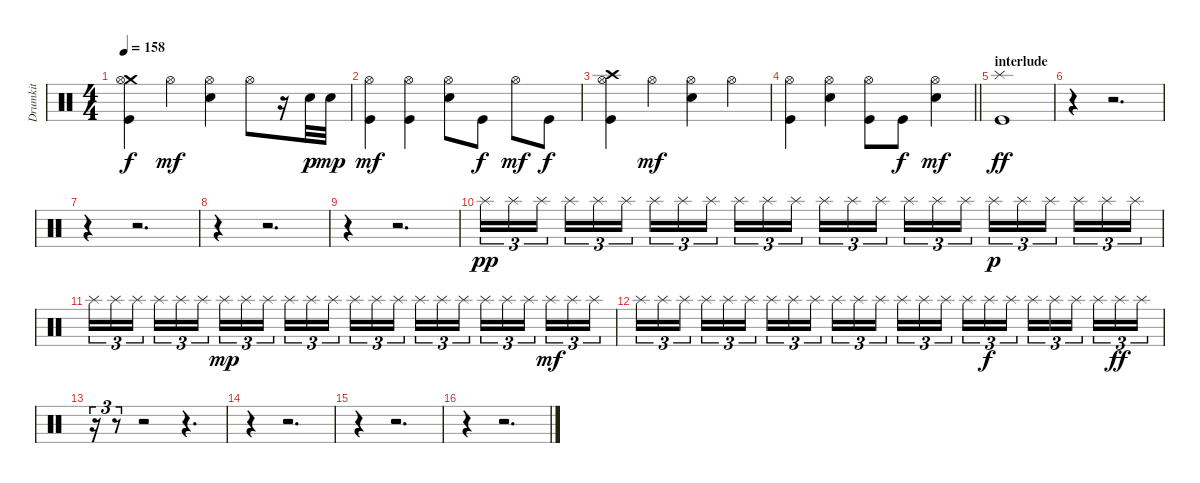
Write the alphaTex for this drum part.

\track ("Drumkit" "Drumkit") {instrument percussion}
\staff {score}
\articulation defaults
\ts (4 4)
\tempo 158
\clef neutral
\ks c
("Crash medium (hit)" "Hi-Hat (open)" "Kick (hit)").4{dy f} "Hi-Hat (open)".4{dy mf} ("Hi-Hat (open)" "Snare (hit) 2").4 "Hi-Hat (open)".8 r.16 "Snare (hit) 2".32{dy p} "Snare (hit) 2".32{dy mp} |
("Hi-Hat (open)" "Kick (hit)").4{dy mf} ("Hi-Hat (open)" "Kick (hit)").4 ("Hi-Hat (open)" "Snare (hit) 2").8 "Kick (hit)".8{dy f} "Hi-Hat (open)".8{dy mf} "Kick (hit)".8{dy f} |
("Crash high (hit)" "Hi-Hat (open)" "Kick (hit)").4 "Hi-Hat (open)".4{dy mf} ("Hi-Hat (open)" "Snare (hit) 2").4 "Hi-Hat (open)".4 |
\barLineRight lightlight
("Hi-Hat (open)" "Kick (hit)").4 ("Hi-Hat (open)" "Snare (hit) 2").4 ("Hi-Hat (open)" "Kick (hit)").8 "Kick (hit)".8{dy f} ("Hi-Hat (open)" "Snare (hit) 2").4{dy mf} |
\section ("" "interlude")
("Splash (hit)" "Kick (hit)").1{dy ff} |
r.4 r.2{d} |
r.4 r.2{d} |
r.4 r.2{d} |
r.4 r.2{d} |
"Splash (hit)".16{tu (3 2) dy pp} "Splash (hit)".16{tu (3 2)} "Splash (hit)".16{tu (3 2)} "Splash (hit)".16{tu (3 2)} "Splash (hit)".16{tu (3 2)} "Splash (hit)".16{tu (3 2)} "Splash (hit)".16{tu (3 2)} "Splash (hit)".16{tu (3 2)} "Splash (hit)".16{tu (3 2)} "Splash (hit)".16{tu (3 2)} "Splash (hit)".16{tu (3 2)} "Splash (hit)".16{tu (3 2)} "Splash (hit)".16{tu (3 2)} "Splash (hit)".16{tu (3 2)} "Splash (hit)".16{tu (3 2)} "Splash (hit)".16{tu (3 2)} "Splash (hit)".16{tu (3 2)} "Splash (hit)".16{tu (3 2)} "Splash (hit)".16{tu (3 2) dy p} "Splash (hit)".16{tu (3 2)} "Splash (hit)".16{tu (3 2)} "Splash (hit)".16{tu (3 2)} "Splash (hit)".16{tu (3 2)} "Splash (hit)".16{tu (3 2)} |
"Splash (hit)".16{tu (3 2)} "Splash (hit)".16{tu (3 2)} "Splash (hit)".16{tu (3 2)} "Splash (hit)".16{tu (3 2)} "Splash (hit)".16{tu (3 2)} "Splash (hit)".16{tu (3 2)} "Splash (hit)".16{tu (3 2) dy mp} "Splash (hit)".16{tu (3 2)} "Splash (hit)".16{tu (3 2)} "Splash (hit)".16{tu (3 2)} "Splash (hit)".16{tu (3 2)} "Splash (hit)".16{tu (3 2)} "Splash (hit)".16{tu (3 2)} "Splash (hit)".16{tu (3 2)} "Splash (hit)".16{tu (3 2)} "Splash (hit)".16{tu (3 2)} "Splash (hit)".16{tu (3 2)} "Splash (hit)".16{tu (3 2)} "Splash (hit)".16{tu (3 2)} "Splash (hit)".16{tu (3 2)} "Splash (hit)".16{tu (3 2)} "Splash (hit)".16{tu (3 2) dy mf} "Splash (hit)".16{tu (3 2)} "Splash (hit)".16{tu (3 2)} |
"Splash (hit)".16{tu (3 2)} "Splash (hit)".16{tu (3 2)} "Splash (hit)".16{tu (3 2)} "Splash (hit)".16{tu (3 2)} "Splash (hit)".16{tu (3 2)} "Splash (hit)".16{tu (3 2)} "Splash (hit)".16{tu (3 2)} "Splash (hit)".16{tu (3 2)} "Splash (hit)".16{tu (3 2)} "Splash (hit)".16{tu (3 2)} "Splash (hit)".16{tu (3 2)} "Splash (hit)".16{tu (3 2)} "Splash (hit)".16{tu (3 2)} "Splash (hit)".16{tu (3 2)} "Splash (hit)".16{tu (3 2)} "Splash (hit)".16{tu (3 2)} "Splash (hit)".16{tu (3 2) dy f} "Splash (hit)".16{tu (3 2)} "Splash (hit)".16{tu (3 2)} "Splash (hit)".16{tu (3 2)} "Splash (hit)".16{tu (3 2)} "Splash (hit)".16{tu (3 2)} "Splash (hit)".16{tu (3 2) dy ff} "Splash (hit)".16{tu (3 2)} |
r.16{tu (3 2)} r.8{tu (3 2)} r.2 r.4{d} |
r.4 r.2{d} |
r.4 r.2{d} |
r.4 r.2{d}
